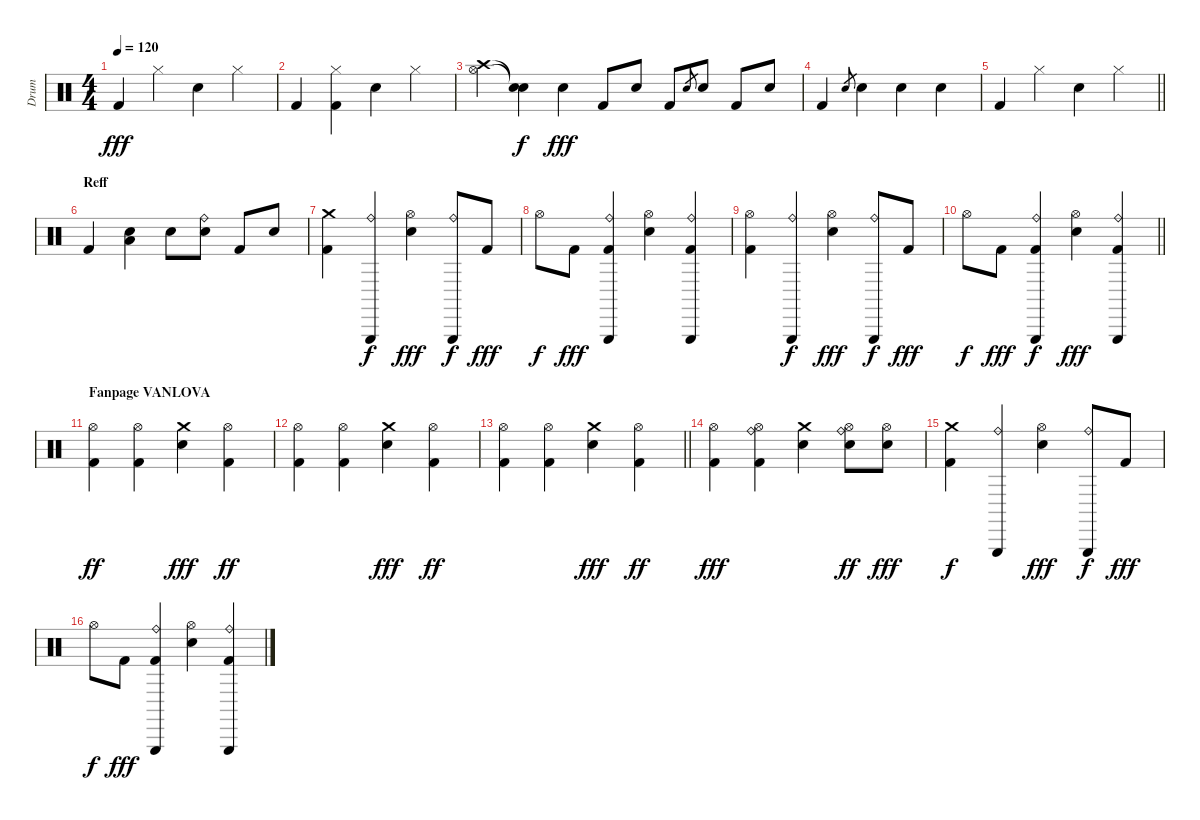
\track ("Drum" "Drum") {instrument percussion}
\staff {score}
\articulation defaults
\ts (4 4)
\tempo 120
\clef neutral
\ks c "Kick (hit) 2".4{dy fff} "Hi-Hat (closed)".4 "Electric Snare (hit)".4 "Hi-Hat (closed)".4
|
"Kick (hit) 2".4 ("Kick (hit) 2" "Hi-Hat (closed)").4 "Electric Snare (hit)".4 "Hi-Hat (closed)".4 |
("Hi-Hat (open)" "Crash high (hit)").4 ("Snare (hit)"{t} "Snare (hit)"{t}).4{dy f} "Electric Snare (hit)".4{dy fff} "Kick (hit) 2".8 "Electric Snare (hit)".8 "Kick (hit) 2".8 "Electric Snare (hit)".8{gr} "Electric Snare (hit)".8 "Kick (hit) 2".8 "Electric Snare (hit)".8 |
"Kick (hit) 2".4 "Electric Snare (hit)".8{gr} "Electric Snare (hit)".4 "Electric Snare (hit)".4 "Electric Snare (hit)".4 |
\barLineRight lightlight "Kick (hit) 2".4 "Hi-Hat (closed)".4 "Electric Snare (hit)".4 "Hi-Hat (closed)".4
|
\section ("" "Reff")
"Kick (hit) 2".4 ("Electric Snare (hit)" "Low Tom (hit)").4 "Electric Snare (hit)".8 ("Electric Snare (hit)" "Ride (bell)").8 "Kick (hit) 2".8 "Electric Snare (hit)".8 |
("Kick (hit) 2" "Crash medium (hit)").4 ("Ride (bell)" "Triangle (hit)").4{dy f} ("Electric Snare (hit)" "Hi-Hat (open)").4{dy fff} ("Ride (bell)" "Triangle (hit)").8{dy f} "Kick (hit) 2".8{dy fff} |
"Hi-Hat (open)".8{dy f} "Kick (hit) 2".8{dy fff} ("Kick (hit) 2" "Ride (bell)" "Triangle (hit)").4 ("Electric Snare (hit)" "Hi-Hat (open)").4 ("Kick (hit) 2" "Ride (bell)" "Triangle (hit)").4 |
("Kick (hit) 2" "Hi-Hat (open)").4 ("Ride (bell)" "Triangle (hit)").4{dy f} ("Electric Snare (hit)" "Hi-Hat (open)").4{dy fff} ("Ride (bell)" "Triangle (hit)").8{dy f} "Kick (hit) 2".8{dy fff} |
\barLineRight lightlight "Hi-Hat (open)".8{dy f} "Kick (hit) 2".8{dy fff}
("Kick (hit) 2" "Ride (bell)" "Triangle (hit)").4{dy f} ("Electric Snare (hit)" "Hi-Hat (open)").4{dy fff} ("Kick (hit) 2" "Ride (bell)" "Triangle (hit)").4 |
\section ("" "Fanpage VANLOVA")
("Kick (hit) 2" "Hi-Hat (open)").4{dy ff} ("Kick (hit) 2" "Hi-Hat (open)").4 ("Electric Snare (hit)" "Crash medium (hit)").4{dy fff} ("Kick (hit) 2" "Hi-Hat (open)").4{dy ff} |
("Kick (hit) 2" "Hi-Hat (open)").4 ("Kick (hit) 2" "Hi-Hat (open)").4 ("Electric Snare (hit)" "Crash medium (hit)").4{dy fff} ("Kick (hit) 2" "Hi-Hat (open)").4{dy ff} |
\barLineRight lightlight
("Kick (hit) 2" "Hi-Hat (open)").4 ("Kick (hit) 2" "Hi-Hat (open)").4 ("Electric Snare (hit)" "Crash medium (hit)").4{dy fff} ("Kick (hit) 2" "Hi-Hat (open)").4{dy ff} |
("Kick (hit) 2" "Hi-Hat (open)").4{dy fff} ("Hi-Hat (open)" "Kick (hit) 2" "Ride (bell)").4 ("Crash medium (hit)" "Electric Snare (hit)").4 ("Hi-Hat (open)" "Electric Snare (hit)" "Ride (bell)").8{dy ff} ("Hi-Hat (open)" "Electric Snare (hit)").8{dy fff} |
("Kick (hit) 2" "Crash medium (hit)").4{dy f} ("Ride (bell)" "Triangle (hit)").4 ("Electric Snare (hit)" "Hi-Hat (open)").4{dy fff} ("Ride (bell)" "Triangle (hit)").8{dy f} "Kick (hit) 2".8{dy fff} |
"Hi-Hat (open)".8{dy f} "Kick (hit) 2".8{dy fff} ("Kick (hit) 2" "Ride (bell)" "Triangle (hit)").4 ("Electric Snare (hit)" "Hi-Hat (open)").4 ("Kick (hit) 2" "Ride (bell)" "Triangle (hit)").4
